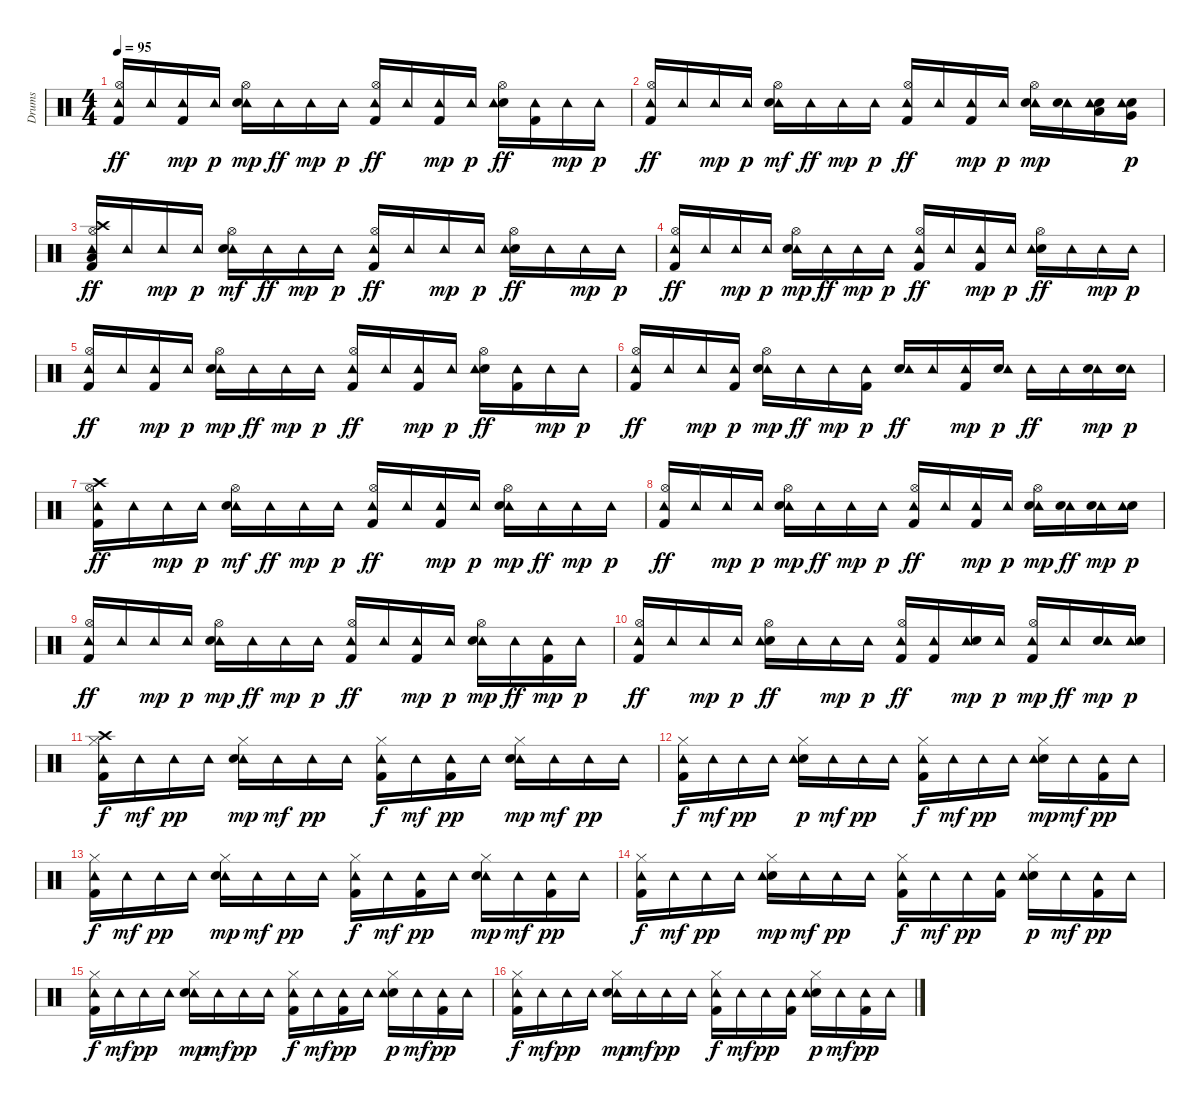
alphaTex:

\track ("Drums" "Drums") {instrument percussion}
\staff {score}
\articulation defaults
\ts (4 4)
\tempo 95
\clef neutral
\ks c
("Kick (hit) 2" "Hi-Hat (open)" "Tambourine (hit)").16{dy ff} "Tambourine (hit)".16 ("Tambourine (hit)" "Kick (hit) 2").16{dy mp} "Tambourine (hit)".16{dy p} ("Tambourine (hit)" "Hi-Hat (open)" "Snare (hit) 2").16{dy mp} "Tambourine (hit)".16{dy ff} "Tambourine (hit)".16{dy mp} "Tambourine (hit)".16{dy p} ("Tambourine (hit)" "Kick (hit) 2" "Hi-Hat (open)").16{dy ff} "Tambourine (hit)".16 ("Kick (hit) 2" "Tambourine (hit)").16{dy mp} "Tambourine (hit)".16{dy p} ("Hi-Hat (open)" "Snare (hit) 2" "Tambourine (hit)").16{dy ff} ("Kick (hit) 2" "Tambourine (hit)").16 "Tambourine (hit)".16{dy mp} "Tambourine (hit)".16{dy p} |
("Tambourine (hit)" "Hi-Hat (open)" "Kick (hit) 2").16{dy ff} "Tambourine (hit)".16 "Tambourine (hit)".16{dy mp} "Tambourine (hit)".16{dy p} ("Tambourine (hit)" "Snare (hit) 2" "Hi-Hat (open)").16{dy mf} "Tambourine (hit)".16{dy ff} "Tambourine (hit)".16{dy mp} "Tambourine (hit)".16{dy p} ("Kick (hit) 2" "Hi-Hat (open)" "Tambourine (hit)").16{dy ff} "Tambourine (hit)".16 ("Kick (hit) 2" "Tambourine (hit)").16{dy mp} "Tambourine (hit)".16{dy p} ("Tambourine (hit)" "Hi-Hat (open)" "Snare (hit) 2").16{dy mp} ("Tambourine (hit)" "Snare (hit) 2").16 ("Low Tom (hit)" "Snare (hit) 2" "Tambourine (hit)").16 ("Very Low Tom (hit)" "Snare (hit) 2" "Tambourine (hit)").16{dy p} |
("Tambourine (hit)" "Crash high (hit)" "Hi-Hat (open)" "Kick (hit) 2" "Low Floor Tom (hit)").16{dy ff} "Tambourine (hit)".16 "Tambourine (hit)".16{dy mp} "Tambourine (hit)".16{dy p} ("Tambourine (hit)" "Snare (hit) 2" "Hi-Hat (open)").16{dy mf} "Tambourine (hit)".16{dy ff} "Tambourine (hit)".16{dy mp} "Tambourine (hit)".16{dy p} ("Tambourine (hit)" "Kick (hit) 2" "Hi-Hat (open)").16{dy ff} "Tambourine (hit)".16 "Tambourine (hit)".16{dy mp} "Tambourine (hit)".16{dy p} ("Snare (hit) 2" "Hi-Hat (open)" "Tambourine (hit)").16{dy ff} "Tambourine (hit)".16 "Tambourine (hit)".16{dy mp} "Tambourine (hit)".16{dy p} |
("Kick (hit) 2" "Hi-Hat (open)" "Tambourine (hit)").16{dy ff} "Tambourine (hit)".16 "Tambourine (hit)".16{dy mp} "Tambourine (hit)".16{dy p} ("Tambourine (hit)" "Hi-Hat (open)" "Snare (hit) 2").16{dy mp} "Tambourine (hit)".16{dy ff} "Tambourine (hit)".16{dy mp} "Tambourine (hit)".16{dy p} ("Tambourine (hit)" "Kick (hit) 2" "Hi-Hat (open)").16{dy ff} "Tambourine (hit)".16 ("Tambourine (hit)" "Kick (hit) 2").16{dy mp} "Tambourine (hit)".16{dy p} ("Snare (hit) 2" "Hi-Hat (open)" "Tambourine (hit)").16{dy ff} "Tambourine (hit)".16 "Tambourine (hit)".16{dy mp} "Tambourine (hit)".16{dy p} |
("Kick (hit) 2" "Hi-Hat (open)" "Tambourine (hit)").16{dy ff} "Tambourine (hit)".16 ("Tambourine (hit)" "Kick (hit) 2").16{dy mp} "Tambourine (hit)".16{dy p} ("Tambourine (hit)" "Hi-Hat (open)" "Snare (hit) 2").16{dy mp} "Tambourine (hit)".16{dy ff} "Tambourine (hit)".16{dy mp} "Tambourine (hit)".16{dy p} ("Hi-Hat (open)" "Kick (hit) 2" "Tambourine (hit)").16{dy ff} "Tambourine (hit)".16 ("Kick (hit) 2" "Tambourine (hit)").16{dy mp} "Tambourine (hit)".16{dy p} ("Snare (hit) 2" "Hi-Hat (open)" "Tambourine (hit)").16{dy ff} ("Tambourine (hit)" "Kick (hit) 2").16 "Tambourine (hit)".16{dy mp} "Tambourine (hit)".16{dy p} |
("Hi-Hat (open)" "Kick (hit) 2" "Tambourine (hit)").16{dy ff} "Tambourine (hit)".16 "Tambourine (hit)".16{dy mp} ("Kick (hit) 2" "Tambourine (hit)").16{dy p} ("Tambourine (hit)" "Snare (hit) 2" "Hi-Hat (open)").16{dy mp} "Tambourine (hit)".16{dy ff} "Tambourine (hit)".16{dy mp} ("Kick (hit) 2" "Tambourine (hit)").16{dy p} ("Snare (hit) 2" "Tambourine (hit)").16{dy ff} "Tambourine (hit)".16 ("Kick (hit) 2" "Tambourine (hit)").16{dy mp} ("Snare (hit) 2" "Tambourine (hit)").16{dy p} "Tambourine (hit)".16{dy ff} "Tambourine (hit)".16 ("Tambourine (hit)" "Snare (hit) 2").16{dy mp} ("Tambourine (hit)" "Snare (hit) 2").16{dy p} |
("Hi-Hat (open)" "Kick (hit) 2" "Crash high (hit)" "Tambourine (hit)").16{dy ff} "Tambourine (hit)".16 "Tambourine (hit)".16{dy mp} "Tambourine (hit)".16{dy p} ("Tambourine (hit)" "Snare (hit) 2" "Hi-Hat (open)").16{dy mf} "Tambourine (hit)".16{dy ff} "Tambourine (hit)".16{dy mp} "Tambourine (hit)".16{dy p} ("Tambourine (hit)" "Kick (hit) 2" "Hi-Hat (open)").16{dy ff} "Tambourine (hit)".16 ("Tambourine (hit)" "Kick (hit) 2").16{dy mp} "Tambourine (hit)".16{dy p} ("Tambourine (hit)" "Snare (hit) 2" "Hi-Hat (open)").16{dy mp} "Tambourine (hit)".16{dy ff} "Tambourine (hit)".16{dy mp} "Tambourine (hit)".16{dy p} |
("Hi-Hat (open)" "Kick (hit) 2" "Tambourine (hit)").16{dy ff} "Tambourine (hit)".16 "Tambourine (hit)".16{dy mp} "Tambourine (hit)".16{dy p} ("Tambourine (hit)" "Snare (hit) 2" "Hi-Hat (open)").16{dy mp} "Tambourine (hit)".16{dy ff} "Tambourine (hit)".16{dy mp} "Tambourine (hit)".16{dy p} ("Tambourine (hit)" "Kick (hit) 2" "Hi-Hat (open)").16{dy ff} "Tambourine (hit)".16 ("Kick (hit) 2" "Tambourine (hit)").16{dy mp} "Tambourine (hit)".16{dy p} ("Tambourine (hit)" "Hi-Hat (open)" "Snare (hit) 2").16{dy mp} ("Tambourine (hit)" "Snare (hit) 2").16{dy ff} ("Tambourine (hit)" "Snare (hit) 2").16{dy mp} ("Snare (hit) 2" "Tambourine (hit)").16{dy p} |
("Tambourine (hit)" "Kick (hit) 2" "Hi-Hat (open)").16{dy ff} "Tambourine (hit)".16 "Tambourine (hit)".16{dy mp} "Tambourine (hit)".16{dy p} ("Tambourine (hit)" "Snare (hit) 2" "Hi-Hat (open)").16{dy mp} "Tambourine (hit)".16{dy ff} "Tambourine (hit)".16{dy mp} "Tambourine (hit)".16{dy p} ("Hi-Hat (open)" "Kick (hit) 2" "Tambourine (hit)").16{dy ff} "Tambourine (hit)".16 ("Kick (hit) 2" "Tambourine (hit)").16{dy mp} "Tambourine (hit)".16{dy p} ("Tambourine (hit)" "Snare (hit) 2" "Hi-Hat (open)").16{dy mp} "Tambourine (hit)".16{dy ff} ("Kick (hit) 2" "Tambourine (hit)").16{dy mp} "Tambourine (hit)".16{dy p} |
("Hi-Hat (open)" "Kick (hit) 2" "Tambourine (hit)").16{dy ff} "Tambourine (hit)".16 "Tambourine (hit)".16{dy mp} "Tambourine (hit)".16{dy p} ("Hi-Hat (open)" "Snare (hit) 2" "Tambourine (hit)").16{dy ff} "Tambourine (hit)".16 "Tambourine (hit)".16{dy mp} "Tambourine (hit)".16{dy p} ("Tambourine (hit)" "Kick (hit) 2" "Hi-Hat (open)").16{dy ff} ("Kick (hit) 2" "Tambourine (hit)").16 ("Tambourine (hit)" "Snare (hit) 2").16{dy mp} "Tambourine (hit)".16{dy p} ("Tambourine (hit)" "Kick (hit) 2" "Hi-Hat (open)").16{dy mp} "Tambourine (hit)".16{dy ff} ("Snare (hit) 2" "Tambourine (hit)").16{dy mp} ("Tambourine (hit)" "Snare (hit) 2").16{dy p} |
("Hi-Hat (closed)" "Crash high (hit)" "Tambourine (hit)" "Kick (hit) 2").16{dy f} "Tambourine (hit)".16{dy mf} "Tambourine (hit)".16{dy pp} "Tambourine (hit)".16 ("Hi-Hat (closed)" "Tambourine (hit)" "Snare (hit) 2").16{dy mp} "Tambourine (hit)".16{dy mf} "Tambourine (hit)".16{dy pp} "Tambourine (hit)".16 ("Hi-Hat (closed)" "Tambourine (hit)" "Kick (hit) 2").16{dy f} "Tambourine (hit)".16{dy mf} ("Kick (hit) 2" "Tambourine (hit)").16{dy pp} "Tambourine (hit)".16 ("Hi-Hat (closed)" "Tambourine (hit)" "Snare (hit) 2").16{dy mp} "Tambourine (hit)".16{dy mf} "Tambourine (hit)".16{dy pp} "Tambourine (hit)".16 |
("Kick (hit) 2" "Tambourine (hit)" "Hi-Hat (closed)").16{dy f} "Tambourine (hit)".16{dy mf} "Tambourine (hit)".16{dy pp} "Tambourine (hit)".16 ("Snare (hit) 2" "Tambourine (hit)" "Hi-Hat (closed)").16{dy p} "Tambourine (hit)".16{dy mf} "Tambourine (hit)".16{dy pp} "Tambourine (hit)".16 ("Hi-Hat (closed)" "Tambourine (hit)" "Kick (hit) 2").16{dy f} "Tambourine (hit)".16{dy mf} "Tambourine (hit)".16{dy pp} "Tambourine (hit)".16 ("Snare (hit) 2" "Tambourine (hit)" "Hi-Hat (closed)").16{dy mp} "Tambourine (hit)".16{dy mf} ("Kick (hit) 2" "Tambourine (hit)").16{dy pp} "Tambourine (hit)".16 |
("Hi-Hat (closed)" "Tambourine (hit)" "Kick (hit) 2").16{dy f} "Tambourine (hit)".16{dy mf} "Tambourine (hit)".16{dy pp} "Tambourine (hit)".16 ("Hi-Hat (closed)" "Tambourine (hit)" "Snare (hit) 2").16{dy mp} "Tambourine (hit)".16{dy mf} "Tambourine (hit)".16{dy pp} "Tambourine (hit)".16 ("Kick (hit) 2" "Tambourine (hit)" "Hi-Hat (closed)").16{dy f} "Tambourine (hit)".16{dy mf} ("Kick (hit) 2" "Tambourine (hit)").16{dy pp} "Tambourine (hit)".16 ("Hi-Hat (closed)" "Tambourine (hit)" "Snare (hit) 2").16{dy mp} "Tambourine (hit)".16{dy mf} ("Tambourine (hit)" "Kick (hit) 2").16{dy pp} "Tambourine (hit)".16 |
("Kick (hit) 2" "Tambourine (hit)" "Hi-Hat (closed)").16{dy f} "Tambourine (hit)".16{dy mf} "Tambourine (hit)".16{dy pp} "Tambourine (hit)".16 ("Snare (hit) 2" "Tambourine (hit)" "Hi-Hat (closed)").16{dy mp} "Tambourine (hit)".16{dy mf} "Tambourine (hit)".16{dy pp} "Tambourine (hit)".16 ("Hi-Hat (closed)" "Tambourine (hit)" "Kick (hit) 2").16{dy f} "Tambourine (hit)".16{dy mf} "Tambourine (hit)".16{dy pp} ("Kick (hit) 2" "Tambourine (hit)").16 ("Snare (hit) 2" "Tambourine (hit)" "Hi-Hat (closed)").16{dy p} "Tambourine (hit)".16{dy mf} ("Tambourine (hit)" "Kick (hit) 2").16{dy pp} "Tambourine (hit)".16 |
("Hi-Hat (closed)" "Tambourine (hit)" "Kick (hit) 2").16{dy f} "Tambourine (hit)".16{dy mf} "Tambourine (hit)".16{dy pp} "Tambourine (hit)".16 ("Hi-Hat (closed)" "Tambourine (hit)" "Snare (hit) 2").16{dy mp} "Tambourine (hit)".16{dy mf} "Tambourine (hit)".16{dy pp} "Tambourine (hit)".16 ("Kick (hit) 2" "Tambourine (hit)" "Hi-Hat (closed)").16{dy f} "Tambourine (hit)".16{dy mf} ("Tambourine (hit)" "Kick (hit) 2").16{dy pp} "Tambourine (hit)".16 ("Snare (hit) 2" "Tambourine (hit)" "Hi-Hat (closed)").16{dy p} "Tambourine (hit)".16{dy mf} ("Kick (hit) 2" "Tambourine (hit)").16{dy pp} "Tambourine (hit)".16 |
("Kick (hit) 2" "Tambourine (hit)" "Hi-Hat (closed)").16{dy f} "Tambourine (hit)".16{dy mf} "Tambourine (hit)".16{dy pp} "Tambourine (hit)".16 ("Hi-Hat (closed)" "Tambourine (hit)" "Snare (hit) 2").16{dy mp} "Tambourine (hit)".16{dy mf} "Tambourine (hit)".16{dy pp} "Tambourine (hit)".16 ("Kick (hit) 2" "Tambourine (hit)" "Hi-Hat (closed)").16{dy f} "Tambourine (hit)".16{dy mf} "Tambourine (hit)".16{dy pp} ("Tambourine (hit)" "Kick (hit) 2").16 ("Snare (hit) 2" "Tambourine (hit)" "Hi-Hat (closed)").16{dy p} "Tambourine (hit)".16{dy mf} ("Kick (hit) 2" "Tambourine (hit)").16{dy pp} "Tambourine (hit)".16
